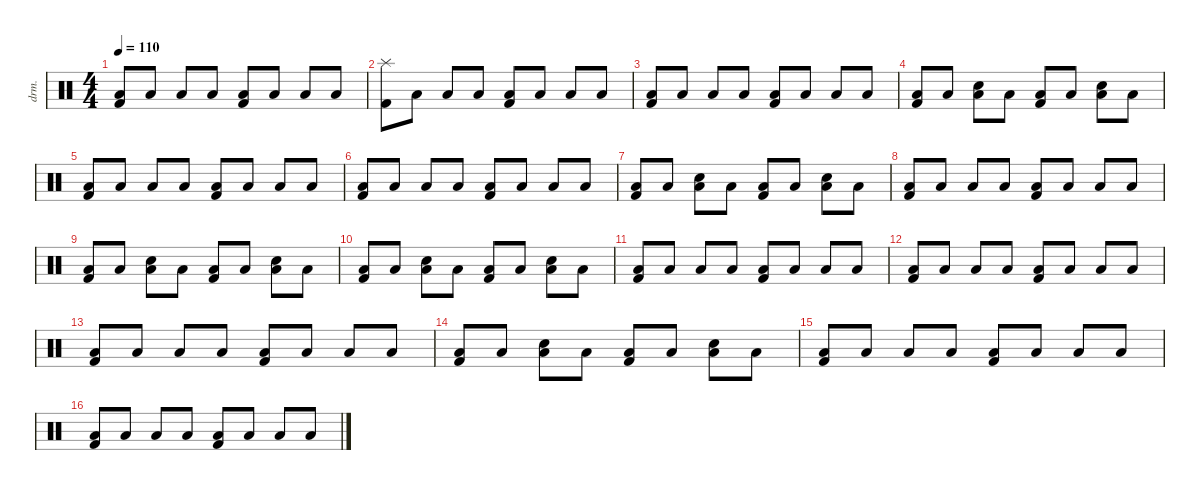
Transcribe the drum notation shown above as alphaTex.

\defaultSystemsLayout 4
\hideDynamics
\bracketExtendMode nobrackets
\track ("Drumkit" "drm.") {instrument percussion}
\staff {score}
\articulation defaults
\ts (4 4)
\tempo 110
\clef neutral
\ks c
("Kick (hit) 2" "Low Tom (hit)").8{dy mf beam Up} "Low Tom (hit)".8{beam Up} "Low Tom (hit)".8{beam Up} "Low Tom (hit)".8{beam Up} ("Low Tom (hit)" "Kick (hit) 2").8{beam Up} "Low Tom (hit)".8{beam Up} "Low Tom (hit)".8{beam Up} "Low Tom (hit)".8{beam Up} |
("Kick (hit) 2" "Splash (hit)").8{beam Down} "Low Tom (hit)".8{beam Down} "Low Tom (hit)".8{beam Up} "Low Tom (hit)".8{beam Up} ("Low Tom (hit)" "Kick (hit) 2").8{beam Up} "Low Tom (hit)".8{beam Up} "Low Tom (hit)".8{beam Up} "Low Tom (hit)".8{beam Up} |
("Kick (hit) 2" "Low Tom (hit)").8{beam Up} "Low Tom (hit)".8{beam Up} "Low Tom (hit)".8{beam Up} "Low Tom (hit)".8{beam Up} ("Low Tom (hit)" "Kick (hit) 2").8{beam Up} "Low Tom (hit)".8{beam Up} "Low Tom (hit)".8{beam Up} "Low Tom (hit)".8{beam Up} |
("Kick (hit) 2" "Low Tom (hit)").8{beam Up} "Low Tom (hit)".8{beam Up} ("Low Tom (hit)" "Snare (hit) 2").8{beam Down} "Low Tom (hit)".8{beam Down} ("Low Tom (hit)" "Kick (hit) 2").8{beam Up} "Low Tom (hit)".8{beam Up} ("Low Tom (hit)" "Snare (hit) 2").8{beam Down} "Low Tom (hit)".8{beam Down} |
("Kick (hit) 2" "Low Tom (hit)").8{beam Up} "Low Tom (hit)".8{beam Up} "Low Tom (hit)".8{beam Up} "Low Tom (hit)".8{beam Up} ("Low Tom (hit)" "Kick (hit) 2").8{beam Up} "Low Tom (hit)".8{beam Up} "Low Tom (hit)".8{beam Up} "Low Tom (hit)".8{beam Up} |
("Kick (hit) 2" "Low Tom (hit)").8{beam Up} "Low Tom (hit)".8{beam Up} "Low Tom (hit)".8{beam Up} "Low Tom (hit)".8{beam Up} ("Low Tom (hit)" "Kick (hit) 2").8{beam Up} "Low Tom (hit)".8{beam Up} "Low Tom (hit)".8{beam Up} "Low Tom (hit)".8{beam Up} |
("Kick (hit) 2" "Low Tom (hit)").8{beam Up} "Low Tom (hit)".8{beam Up} ("Low Tom (hit)" "Snare (hit) 2").8{beam Down} "Low Tom (hit)".8{beam Down} ("Low Tom (hit)" "Kick (hit) 2").8{beam Up} "Low Tom (hit)".8{beam Up} ("Low Tom (hit)" "Snare (hit) 2").8{beam Down} "Low Tom (hit)".8{beam Down} |
("Kick (hit) 2" "Low Tom (hit)").8{beam Up} "Low Tom (hit)".8{beam Up} "Low Tom (hit)".8{beam Up} "Low Tom (hit)".8{beam Up} ("Low Tom (hit)" "Kick (hit) 2").8{beam Up} "Low Tom (hit)".8{beam Up} "Low Tom (hit)".8{beam Up} "Low Tom (hit)".8{beam Up} |
("Kick (hit) 2" "Low Tom (hit)").8{beam Up} "Low Tom (hit)".8{beam Up} ("Low Tom (hit)" "Snare (hit) 2").8{beam Down} "Low Tom (hit)".8{beam Down} ("Low Tom (hit)" "Kick (hit) 2").8{beam Up} "Low Tom (hit)".8{beam Up} ("Low Tom (hit)" "Snare (hit) 2").8{beam Down} "Low Tom (hit)".8{beam Down} |
("Kick (hit) 2" "Low Tom (hit)").8{beam Up} "Low Tom (hit)".8{beam Up} ("Low Tom (hit)" "Snare (hit) 2").8{beam Down} "Low Tom (hit)".8{beam Down} ("Low Tom (hit)" "Kick (hit) 2").8{beam Up} "Low Tom (hit)".8{beam Up} ("Low Tom (hit)" "Snare (hit) 2").8{beam Down} "Low Tom (hit)".8{beam Down} |
("Kick (hit) 2" "Low Tom (hit)").8{beam Up} "Low Tom (hit)".8{beam Up} "Low Tom (hit)".8{beam Up} "Low Tom (hit)".8{beam Up} ("Low Tom (hit)" "Kick (hit) 2").8{beam Up} "Low Tom (hit)".8{beam Up} "Low Tom (hit)".8{beam Up} "Low Tom (hit)".8{beam Up} |
("Kick (hit) 2" "Low Tom (hit)").8{beam Up} "Low Tom (hit)".8{beam Up} "Low Tom (hit)".8{beam Up} "Low Tom (hit)".8{beam Up} ("Low Tom (hit)" "Kick (hit) 2").8{beam Up} "Low Tom (hit)".8{beam Up} "Low Tom (hit)".8{beam Up} "Low Tom (hit)".8{beam Up} |
("Kick (hit) 2" "Low Tom (hit)").8{beam Up} "Low Tom (hit)".8{beam Up} "Low Tom (hit)".8{beam Up} "Low Tom (hit)".8{beam Up} ("Low Tom (hit)" "Kick (hit) 2").8{beam Up} "Low Tom (hit)".8{beam Up} "Low Tom (hit)".8{beam Up} "Low Tom (hit)".8{beam Up} |
("Kick (hit) 2" "Low Tom (hit)").8{beam Up} "Low Tom (hit)".8{beam Up} ("Low Tom (hit)" "Snare (hit) 2").8{beam Down} "Low Tom (hit)".8{beam Down} ("Low Tom (hit)" "Kick (hit) 2").8{beam Up} "Low Tom (hit)".8{beam Up} ("Low Tom (hit)" "Snare (hit) 2").8{beam Down} "Low Tom (hit)".8{beam Down} |
("Kick (hit) 2" "Low Tom (hit)").8{beam Up} "Low Tom (hit)".8{beam Up} "Low Tom (hit)".8{beam Up} "Low Tom (hit)".8{beam Up} ("Low Tom (hit)" "Kick (hit) 2").8{beam Up} "Low Tom (hit)".8{beam Up} "Low Tom (hit)".8{beam Up} "Low Tom (hit)".8{beam Up} |
("Kick (hit) 2" "Low Tom (hit)").8{beam Up} "Low Tom (hit)".8{beam Up} "Low Tom (hit)".8{beam Up} "Low Tom (hit)".8{beam Up} ("Low Tom (hit)" "Kick (hit) 2").8{beam Up} "Low Tom (hit)".8{beam Up} "Low Tom (hit)".8{beam Up} "Low Tom (hit)".8{beam Up}
